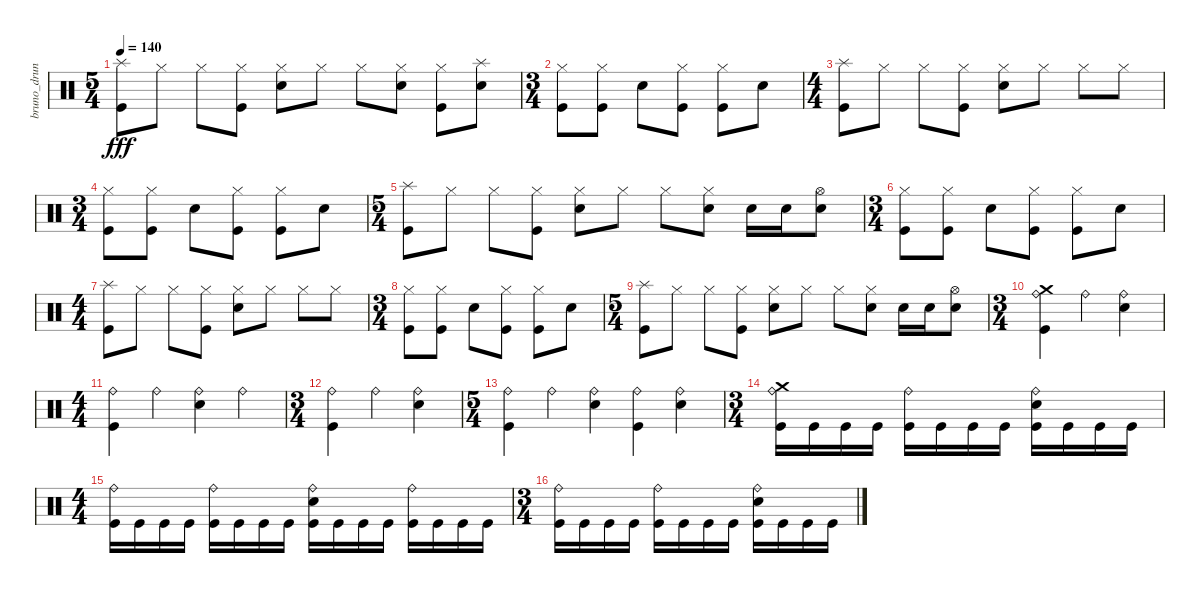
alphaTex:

\track ("bruno_druns" "bruno_drun") {instrument percussion}
\staff {score}
\articulation defaults
\ts (5 4)
\tempo 140
\clef neutral
\ks c
("Kick (hit)" "Splash (hit)").8{dy fff} "Hi-Hat (closed)".8 "Hi-Hat (closed)".8 ("Kick (hit)" "Hi-Hat (closed)").8 ("Electric Snare (hit)" "Hi-Hat (closed)").8 "Hi-Hat (closed)".8 "Hi-Hat (closed)".8 ("Electric Snare (hit)" "Hi-Hat (closed)").8 ("Kick (hit)" "Hi-Hat (closed)").8 ("Electric Snare (hit)" "Splash (hit)").8 |
\ts (3 4)
("Kick (hit)" "Hi-Hat (closed)").8 ("Kick (hit)" "Hi-Hat (closed)").8 "Electric Snare (hit)".8 ("Kick (hit)" "Hi-Hat (closed)").8 ("Kick (hit)" "Hi-Hat (closed)").8 "Electric Snare (hit)".8 |
\ts (4 4)
("Kick (hit)" "Splash (hit)").8 "Hi-Hat (closed)".8 "Hi-Hat (closed)".8 ("Kick (hit)" "Hi-Hat (closed)").8 ("Electric Snare (hit)" "Hi-Hat (closed)").8 "Hi-Hat (closed)".8 "Hi-Hat (closed)".8 "Hi-Hat (closed)".8 |
\ts (3 4)
("Kick (hit)" "Hi-Hat (closed)").8 ("Kick (hit)" "Hi-Hat (closed)").8 "Electric Snare (hit)".8 ("Kick (hit)" "Hi-Hat (closed)").8 ("Kick (hit)" "Hi-Hat (closed)").8 "Electric Snare (hit)".8 |
\ts (5 4)
("Kick (hit)" "Splash (hit)").8 "Hi-Hat (closed)".8 "Hi-Hat (closed)".8 ("Kick (hit)" "Hi-Hat (closed)").8 ("Electric Snare (hit)" "Hi-Hat (closed)").8 "Hi-Hat (closed)".8 "Hi-Hat (closed)".8 ("Electric Snare (hit)" "Hi-Hat (closed)").8 "Electric Snare (hit)".16 "Electric Snare (hit)".16 ("Electric Snare (hit)" "Hi-Hat (open)").8 |
\ts (3 4)
("Kick (hit)" "Hi-Hat (closed)").8 ("Kick (hit)" "Hi-Hat (closed)").8 "Electric Snare (hit)".8 ("Kick (hit)" "Hi-Hat (closed)").8 ("Kick (hit)" "Hi-Hat (closed)").8 "Electric Snare (hit)".8 |
\ts (4 4)
("Kick (hit)" "Splash (hit)").8 "Hi-Hat (closed)".8 "Hi-Hat (closed)".8 ("Kick (hit)" "Hi-Hat (closed)").8 ("Electric Snare (hit)" "Hi-Hat (closed)").8 "Hi-Hat (closed)".8 "Hi-Hat (closed)".8 "Hi-Hat (closed)".8 |
\ts (3 4)
("Kick (hit)" "Hi-Hat (closed)").8 ("Kick (hit)" "Hi-Hat (closed)").8 "Electric Snare (hit)".8 ("Kick (hit)" "Hi-Hat (closed)").8 ("Kick (hit)" "Hi-Hat (closed)").8 "Electric Snare (hit)".8 |
\ts (5 4)
("Kick (hit)" "Splash (hit)").8 "Hi-Hat (closed)".8 "Hi-Hat (closed)".8 ("Kick (hit)" "Hi-Hat (closed)").8 ("Electric Snare (hit)" "Hi-Hat (closed)").8 "Hi-Hat (closed)".8 "Hi-Hat (closed)".8 ("Electric Snare (hit)" "Hi-Hat (closed)").8 "Electric Snare (hit)".16 "Electric Snare (hit)".16 ("Electric Snare (hit)" "Hi-Hat (open)").8 |
\ts (3 4)
("Kick (hit)" "Ride (bell)" "Crash medium (hit)").4 "Ride (bell)".4 ("Electric Snare (hit)" "Ride (bell)").4 |
\ts (4 4)
("Kick (hit)" "Ride (bell)").4 "Ride (bell)".4 ("Electric Snare (hit)" "Ride (bell)").4 "Ride (bell)".4 |
\ts (3 4)
("Kick (hit)" "Ride (bell)").4 "Ride (bell)".4 ("Electric Snare (hit)" "Ride (bell)").4 |
\ts (5 4)
("Kick (hit)" "Ride (bell)").4 "Ride (bell)".4 ("Electric Snare (hit)" "Ride (bell)").4 ("Kick (hit)" "Ride (bell)").4 ("Electric Snare (hit)" "Ride (bell)").4 |
\ts (3 4)
("Kick (hit)" "Ride (bell)" "Crash medium (hit)").16 "Kick (hit)".16 "Kick (hit)".16 "Kick (hit)".16 ("Kick (hit)" "Ride (bell)").16 "Kick (hit)".16 "Kick (hit)".16 "Kick (hit)".16 ("Kick (hit)" "Electric Snare (hit)" "Ride (bell)").16 "Kick (hit)".16 "Kick (hit)".16 "Kick (hit)".16 |
\ts (4 4)
("Kick (hit)" "Ride (bell)").16 "Kick (hit)".16 "Kick (hit)".16 "Kick (hit)".16 ("Kick (hit)" "Ride (bell)").16 "Kick (hit)".16 "Kick (hit)".16 "Kick (hit)".16 ("Kick (hit)" "Electric Snare (hit)" "Ride (bell)").16 "Kick (hit)".16 "Kick (hit)".16 "Kick (hit)".16 ("Kick (hit)" "Ride (bell)").16 "Kick (hit)".16 "Kick (hit)".16 "Kick (hit)".16 |
\ts (3 4)
("Kick (hit)" "Ride (bell)").16 "Kick (hit)".16 "Kick (hit)".16 "Kick (hit)".16 ("Kick (hit)" "Ride (bell)").16 "Kick (hit)".16 "Kick (hit)".16 "Kick (hit)".16 ("Kick (hit)" "Electric Snare (hit)" "Ride (bell)").16 "Kick (hit)".16 "Kick (hit)".16 "Kick (hit)".16
